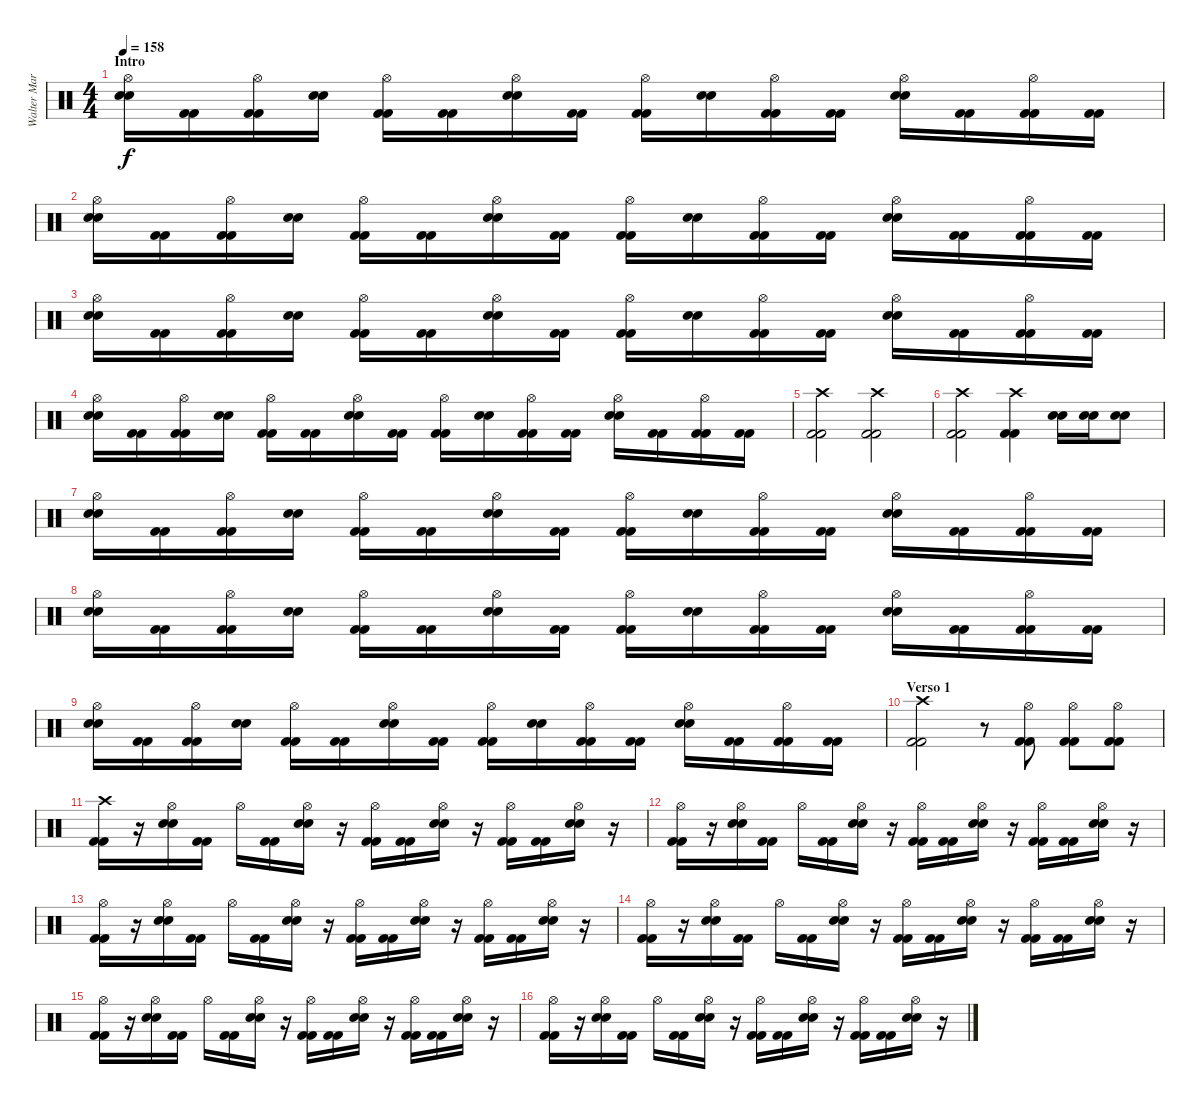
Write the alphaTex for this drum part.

\track ("Walter Martinez (Bateria)" "Walter Mar") {instrument percussion}
\staff {score}
\articulation defaults
\ts (4 4)
\section ("" "Intro")
\tempo 158
\clef neutral
\ks c
("Hi-Hat (open)" "Snare (hit) 2" "Snare (hit) 2").16{dy f} ("Kick (hit) 2" "Kick (hit) 2").16 ("Hi-Hat (open)" "Kick (hit) 2" "Kick (hit) 2").16 ("Snare (hit) 2" "Snare (hit) 2").16 ("Hi-Hat (open)" "Kick (hit) 2" "Kick (hit) 2").16 ("Kick (hit) 2" "Kick (hit) 2").16 ("Hi-Hat (open)" "Snare (hit) 2" "Snare (hit) 2").16 ("Kick (hit) 2" "Kick (hit) 2").16 ("Hi-Hat (open)" "Kick (hit) 2" "Kick (hit) 2").16 ("Snare (hit) 2" "Snare (hit) 2").16 ("Hi-Hat (open)" "Kick (hit) 2" "Kick (hit) 2").16 ("Kick (hit) 2" "Kick (hit) 2").16 ("Hi-Hat (open)" "Snare (hit) 2" "Snare (hit) 2").16 ("Kick (hit) 2" "Kick (hit) 2").16 ("Hi-Hat (open)" "Kick (hit) 2" "Kick (hit) 2").16 ("Kick (hit) 2" "Kick (hit) 2").16 |
("Hi-Hat (open)" "Snare (hit) 2" "Snare (hit) 2").16 ("Kick (hit) 2" "Kick (hit) 2").16 ("Hi-Hat (open)" "Kick (hit) 2" "Kick (hit) 2").16 ("Snare (hit) 2" "Snare (hit) 2").16 ("Hi-Hat (open)" "Kick (hit) 2" "Kick (hit) 2").16 ("Kick (hit) 2" "Kick (hit) 2").16 ("Hi-Hat (open)" "Snare (hit) 2" "Snare (hit) 2").16 ("Kick (hit) 2" "Kick (hit) 2").16 ("Hi-Hat (open)" "Kick (hit) 2" "Kick (hit) 2").16 ("Snare (hit) 2" "Snare (hit) 2").16 ("Hi-Hat (open)" "Kick (hit) 2" "Kick (hit) 2").16 ("Kick (hit) 2" "Kick (hit) 2").16 ("Hi-Hat (open)" "Snare (hit) 2" "Snare (hit) 2").16 ("Kick (hit) 2" "Kick (hit) 2").16 ("Hi-Hat (open)" "Kick (hit) 2" "Kick (hit) 2").16 ("Kick (hit) 2" "Kick (hit) 2").16 |
("Hi-Hat (open)" "Snare (hit) 2" "Snare (hit) 2").16 ("Kick (hit) 2" "Kick (hit) 2").16 ("Hi-Hat (open)" "Kick (hit) 2" "Kick (hit) 2").16 ("Snare (hit) 2" "Snare (hit) 2").16 ("Hi-Hat (open)" "Kick (hit) 2" "Kick (hit) 2").16 ("Kick (hit) 2" "Kick (hit) 2").16 ("Hi-Hat (open)" "Snare (hit) 2" "Snare (hit) 2").16 ("Kick (hit) 2" "Kick (hit) 2").16 ("Hi-Hat (open)" "Kick (hit) 2" "Kick (hit) 2").16 ("Snare (hit) 2" "Snare (hit) 2").16 ("Hi-Hat (open)" "Kick (hit) 2" "Kick (hit) 2").16 ("Kick (hit) 2" "Kick (hit) 2").16 ("Hi-Hat (open)" "Snare (hit) 2" "Snare (hit) 2").16 ("Kick (hit) 2" "Kick (hit) 2").16 ("Hi-Hat (open)" "Kick (hit) 2" "Kick (hit) 2").16 ("Kick (hit) 2" "Kick (hit) 2").16 |
("Hi-Hat (open)" "Snare (hit) 2" "Snare (hit) 2").16 ("Kick (hit) 2" "Kick (hit) 2").16 ("Hi-Hat (open)" "Kick (hit) 2" "Kick (hit) 2").16 ("Snare (hit) 2" "Snare (hit) 2").16 ("Hi-Hat (open)" "Kick (hit) 2" "Kick (hit) 2").16 ("Kick (hit) 2" "Kick (hit) 2").16 ("Hi-Hat (open)" "Snare (hit) 2" "Snare (hit) 2").16 ("Kick (hit) 2" "Kick (hit) 2").16 ("Hi-Hat (open)" "Kick (hit) 2" "Kick (hit) 2").16 ("Snare (hit) 2" "Snare (hit) 2").16 ("Hi-Hat (open)" "Kick (hit) 2" "Kick (hit) 2").16 ("Kick (hit) 2" "Kick (hit) 2").16 ("Hi-Hat (open)" "Snare (hit) 2" "Snare (hit) 2").16 ("Kick (hit) 2" "Kick (hit) 2").16 ("Hi-Hat (open)" "Kick (hit) 2" "Kick (hit) 2").16 ("Kick (hit) 2" "Kick (hit) 2").16 |
("Crash high (hit)" "Kick (hit) 2" "Kick (hit) 2").2 ("Crash high (hit)" "Kick (hit) 2" "Kick (hit) 2").2 |
("Crash high (hit)" "Kick (hit) 2" "Kick (hit) 2").2 ("Crash high (hit)" "Kick (hit) 2" "Kick (hit) 2").4 ("Snare (hit) 2" "Snare (hit) 2").16 ("Snare (hit) 2" "Snare (hit) 2").16 ("Snare (hit) 2" "Snare (hit) 2").8 |
("Hi-Hat (open)" "Snare (hit) 2" "Snare (hit) 2").16 ("Kick (hit) 2" "Kick (hit) 2").16 ("Hi-Hat (open)" "Kick (hit) 2" "Kick (hit) 2").16 ("Snare (hit) 2" "Snare (hit) 2").16 ("Hi-Hat (open)" "Kick (hit) 2" "Kick (hit) 2").16 ("Kick (hit) 2" "Kick (hit) 2").16 ("Hi-Hat (open)" "Snare (hit) 2" "Snare (hit) 2").16 ("Kick (hit) 2" "Kick (hit) 2").16 ("Hi-Hat (open)" "Kick (hit) 2" "Kick (hit) 2").16 ("Snare (hit) 2" "Snare (hit) 2").16 ("Hi-Hat (open)" "Kick (hit) 2" "Kick (hit) 2").16 ("Kick (hit) 2" "Kick (hit) 2").16 ("Hi-Hat (open)" "Snare (hit) 2" "Snare (hit) 2").16 ("Kick (hit) 2" "Kick (hit) 2").16 ("Hi-Hat (open)" "Kick (hit) 2" "Kick (hit) 2").16 ("Kick (hit) 2" "Kick (hit) 2").16 |
("Hi-Hat (open)" "Snare (hit) 2" "Snare (hit) 2").16 ("Kick (hit) 2" "Kick (hit) 2").16 ("Hi-Hat (open)" "Kick (hit) 2" "Kick (hit) 2").16 ("Snare (hit) 2" "Snare (hit) 2").16 ("Hi-Hat (open)" "Kick (hit) 2" "Kick (hit) 2").16 ("Kick (hit) 2" "Kick (hit) 2").16 ("Hi-Hat (open)" "Snare (hit) 2" "Snare (hit) 2").16 ("Kick (hit) 2" "Kick (hit) 2").16 ("Hi-Hat (open)" "Kick (hit) 2" "Kick (hit) 2").16 ("Snare (hit) 2" "Snare (hit) 2").16 ("Hi-Hat (open)" "Kick (hit) 2" "Kick (hit) 2").16 ("Kick (hit) 2" "Kick (hit) 2").16 ("Hi-Hat (open)" "Snare (hit) 2" "Snare (hit) 2").16 ("Kick (hit) 2" "Kick (hit) 2").16 ("Hi-Hat (open)" "Kick (hit) 2" "Kick (hit) 2").16 ("Kick (hit) 2" "Kick (hit) 2").16 |
("Hi-Hat (open)" "Snare (hit) 2" "Snare (hit) 2").16 ("Kick (hit) 2" "Kick (hit) 2").16 ("Hi-Hat (open)" "Kick (hit) 2" "Kick (hit) 2").16 ("Snare (hit) 2" "Snare (hit) 2").16 ("Hi-Hat (open)" "Kick (hit) 2" "Kick (hit) 2").16 ("Kick (hit) 2" "Kick (hit) 2").16 ("Hi-Hat (open)" "Snare (hit) 2" "Snare (hit) 2").16 ("Kick (hit) 2" "Kick (hit) 2").16 ("Hi-Hat (open)" "Kick (hit) 2" "Kick (hit) 2").16 ("Snare (hit) 2" "Snare (hit) 2").16 ("Hi-Hat (open)" "Kick (hit) 2" "Kick (hit) 2").16 ("Kick (hit) 2" "Kick (hit) 2").16 ("Hi-Hat (open)" "Snare (hit) 2" "Snare (hit) 2").16 ("Kick (hit) 2" "Kick (hit) 2").16 ("Hi-Hat (open)" "Kick (hit) 2" "Kick (hit) 2").16 ("Kick (hit) 2" "Kick (hit) 2").16 |
\section ("" "Verso 1")
("Crash high (hit)" "Kick (hit) 2" "Kick (hit) 2").2 r.8 ("Hi-Hat (open)" "Kick (hit) 2" "Kick (hit) 2").8 ("Hi-Hat (open)" "Kick (hit) 2" "Kick (hit) 2").8 ("Hi-Hat (open)" "Kick (hit) 2" "Kick (hit) 2").8 |
("Crash high (hit)" "Kick (hit) 2" "Kick (hit) 2").16 r.16 ("Hi-Hat (open)" "Snare (hit) 2" "Snare (hit) 2").16 ("Kick (hit) 2" "Kick (hit) 2").16 "Hi-Hat (open)".16 ("Kick (hit) 2" "Kick (hit) 2").16 ("Hi-Hat (open)" "Snare (hit) 2" "Snare (hit) 2").16 r.16 ("Hi-Hat (open)" "Kick (hit) 2" "Kick (hit) 2").16 ("Kick (hit) 2" "Kick (hit) 2").16 ("Hi-Hat (open)" "Snare (hit) 2" "Snare (hit) 2").16 r.16 ("Hi-Hat (open)" "Kick (hit) 2" "Kick (hit) 2").16 ("Kick (hit) 2" "Kick (hit) 2").16 ("Hi-Hat (open)" "Snare (hit) 2" "Snare (hit) 2").16 r.16 |
("Hi-Hat (open)" "Kick (hit) 2" "Kick (hit) 2").16 r.16 ("Hi-Hat (open)" "Snare (hit) 2" "Snare (hit) 2").16 ("Kick (hit) 2" "Kick (hit) 2").16 "Hi-Hat (open)".16 ("Kick (hit) 2" "Kick (hit) 2").16 ("Hi-Hat (open)" "Snare (hit) 2" "Snare (hit) 2").16 r.16 ("Hi-Hat (open)" "Kick (hit) 2" "Kick (hit) 2").16 ("Kick (hit) 2" "Kick (hit) 2").16 ("Hi-Hat (open)" "Snare (hit) 2" "Snare (hit) 2").16 r.16 ("Hi-Hat (open)" "Kick (hit) 2" "Kick (hit) 2").16 ("Kick (hit) 2" "Kick (hit) 2").16 ("Hi-Hat (open)" "Snare (hit) 2" "Snare (hit) 2").16 r.16 |
("Hi-Hat (open)" "Kick (hit) 2" "Kick (hit) 2").16 r.16 ("Hi-Hat (open)" "Snare (hit) 2" "Snare (hit) 2").16 ("Kick (hit) 2" "Kick (hit) 2").16 "Hi-Hat (open)".16 ("Kick (hit) 2" "Kick (hit) 2").16 ("Hi-Hat (open)" "Snare (hit) 2" "Snare (hit) 2").16 r.16 ("Hi-Hat (open)" "Kick (hit) 2" "Kick (hit) 2").16 ("Kick (hit) 2" "Kick (hit) 2").16 ("Hi-Hat (open)" "Snare (hit) 2" "Snare (hit) 2").16 r.16 ("Hi-Hat (open)" "Kick (hit) 2" "Kick (hit) 2").16 ("Kick (hit) 2" "Kick (hit) 2").16 ("Hi-Hat (open)" "Snare (hit) 2" "Snare (hit) 2").16 r.16 |
("Hi-Hat (open)" "Kick (hit) 2" "Kick (hit) 2").16 r.16 ("Hi-Hat (open)" "Snare (hit) 2" "Snare (hit) 2").16 ("Kick (hit) 2" "Kick (hit) 2").16 "Hi-Hat (open)".16 ("Kick (hit) 2" "Kick (hit) 2").16 ("Hi-Hat (open)" "Snare (hit) 2" "Snare (hit) 2").16 r.16 ("Hi-Hat (open)" "Kick (hit) 2" "Kick (hit) 2").16 ("Kick (hit) 2" "Kick (hit) 2").16 ("Hi-Hat (open)" "Snare (hit) 2" "Snare (hit) 2").16 r.16 ("Hi-Hat (open)" "Kick (hit) 2" "Kick (hit) 2").16 ("Kick (hit) 2" "Kick (hit) 2").16 ("Hi-Hat (open)" "Snare (hit) 2" "Snare (hit) 2").16 r.16 |
("Hi-Hat (open)" "Kick (hit) 2" "Kick (hit) 2").16 r.16 ("Hi-Hat (open)" "Snare (hit) 2" "Snare (hit) 2").16 ("Kick (hit) 2" "Kick (hit) 2").16 "Hi-Hat (open)".16 ("Kick (hit) 2" "Kick (hit) 2").16 ("Hi-Hat (open)" "Snare (hit) 2" "Snare (hit) 2").16 r.16 ("Hi-Hat (open)" "Kick (hit) 2" "Kick (hit) 2").16 ("Kick (hit) 2" "Kick (hit) 2").16 ("Hi-Hat (open)" "Snare (hit) 2" "Snare (hit) 2").16 r.16 ("Hi-Hat (open)" "Kick (hit) 2" "Kick (hit) 2").16 ("Kick (hit) 2" "Kick (hit) 2").16 ("Hi-Hat (open)" "Snare (hit) 2" "Snare (hit) 2").16 r.16 |
("Hi-Hat (open)" "Kick (hit) 2" "Kick (hit) 2").16 r.16 ("Hi-Hat (open)" "Snare (hit) 2" "Snare (hit) 2").16 ("Kick (hit) 2" "Kick (hit) 2").16 "Hi-Hat (open)".16 ("Kick (hit) 2" "Kick (hit) 2").16 ("Hi-Hat (open)" "Snare (hit) 2" "Snare (hit) 2").16 r.16 ("Hi-Hat (open)" "Kick (hit) 2" "Kick (hit) 2").16 ("Kick (hit) 2" "Kick (hit) 2").16 ("Hi-Hat (open)" "Snare (hit) 2" "Snare (hit) 2").16 r.16 ("Hi-Hat (open)" "Kick (hit) 2" "Kick (hit) 2").16 ("Kick (hit) 2" "Kick (hit) 2").16 ("Hi-Hat (open)" "Snare (hit) 2" "Snare (hit) 2").16 r.16
